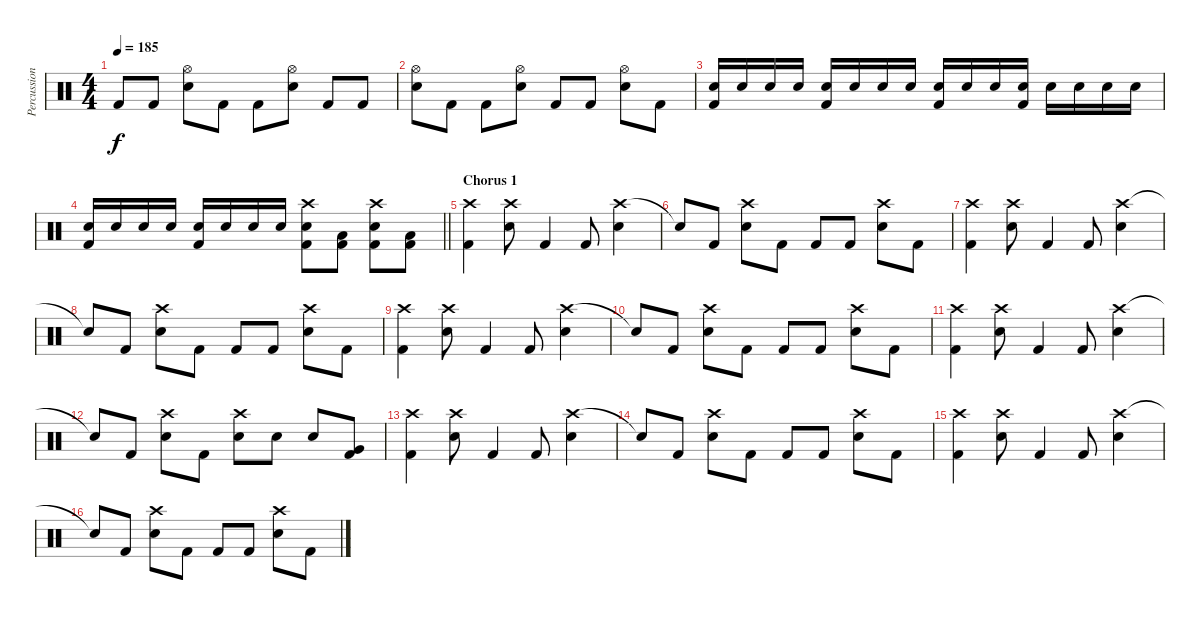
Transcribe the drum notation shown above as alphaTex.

\track ("Percussion" "Percussion") {instrument percussion}
\staff {score}
\articulation defaults
\ts (4 4)
\tempo 185
\clef neutral
\ks c "Kick (hit) 2".8{dy f} "Kick (hit) 2".8
("Hi-Hat (open)" "Snare (hit) 2").8 "Kick (hit) 2".8 "Kick (hit) 2".8 ("Hi-Hat (open)" "Snare (hit) 2").8 "Kick (hit) 2".8 "Kick (hit) 2".8 |
("Hi-Hat (open)" "Snare (hit) 2").8 "Kick (hit) 2".8 "Kick (hit) 2".8 ("Hi-Hat (open)" "Snare (hit) 2").8 "Kick (hit) 2".8 "Kick (hit) 2".8 ("Hi-Hat (open)" "Snare (hit) 2").8 "Kick (hit) 2".8 |
("Snare (hit) 2" "Kick (hit) 2").16 "Snare (hit) 2".16 "Snare (hit) 2".16 "Snare (hit) 2".16 ("Snare (hit) 2" "Kick (hit) 2").16 "Snare (hit) 2".16 "Snare (hit) 2".16 "Snare (hit) 2".16 ("Snare (hit) 2" "Kick (hit) 2").16 "Snare (hit) 2".16 "Snare (hit) 2".16 ("Snare (hit) 2" "Kick (hit) 2").16 "Snare (hit) 2".16 "Snare (hit) 2".16 "Snare (hit) 2".16 "Snare (hit) 2".16 |
\barLineRight lightlight
("Snare (hit) 2" "Kick (hit) 2").16 "Snare (hit) 2".16 "Snare (hit) 2".16 "Snare (hit) 2".16 ("Snare (hit) 2" "Kick (hit) 2").16 "Snare (hit) 2".16 "Snare (hit) 2".16 "Snare (hit) 2".16 ("Crash high (hit)" "Snare (hit) 2" "Kick (hit) 2").8 ("Low Floor Tom (hit)" "Kick (hit) 2").8 ("Crash high (hit)" "Snare (hit) 2" "Kick (hit) 2").8 ("Low Floor Tom (hit)" "Kick (hit) 2").8 |
\section ("" "Chorus 1")
("Crash high (hit)" "Kick (hit) 2").4 ("Crash high (hit)" "Snare (hit) 2").8 "Kick (hit) 2".4 "Kick (hit) 2".8 ("Crash high (hit)" "Snare (hit) 2").4 |
"Snare (hit)"{t}.8 "Kick (hit) 2".8 ("Crash high (hit)" "Snare (hit) 2").8 "Kick (hit) 2".8 "Kick (hit) 2".8 "Kick (hit) 2".8 ("Crash high (hit)" "Snare (hit) 2").8 "Kick (hit) 2".8 |
("Crash high (hit)" "Kick (hit) 2").4 ("Crash high (hit)" "Snare (hit) 2").8 "Kick (hit) 2".4 "Kick (hit) 2".8 ("Crash high (hit)" "Snare (hit) 2").4 |
"Snare (hit)"{t}.8 "Kick (hit) 2".8 ("Crash high (hit)" "Snare (hit) 2").8 "Kick (hit) 2".8 "Kick (hit) 2".8 "Kick (hit) 2".8 ("Crash high (hit)" "Snare (hit) 2").8 "Kick (hit) 2".8 |
("Crash high (hit)" "Kick (hit) 2").4 ("Crash high (hit)" "Snare (hit) 2").8 "Kick (hit) 2".4 "Kick (hit) 2".8 ("Crash high (hit)" "Snare (hit) 2").4 |
"Snare (hit)"{t}.8 "Kick (hit) 2".8 ("Crash high (hit)" "Snare (hit) 2").8 "Kick (hit) 2".8 "Kick (hit) 2".8 "Kick (hit) 2".8 ("Crash high (hit)" "Snare (hit) 2").8 "Kick (hit) 2".8 |
("Crash high (hit)" "Kick (hit) 2").4 ("Crash high (hit)" "Snare (hit) 2").8 "Kick (hit) 2".4 "Kick (hit) 2".8 ("Crash high (hit)" "Snare (hit) 2").4 |
"Snare (hit)"{t}.8 "Kick (hit) 2".8 ("Crash high (hit)" "Snare (hit) 2").8 "Kick (hit) 2".8 ("Crash high (hit)" "Snare (hit) 2").8 "Snare (hit) 2".8 "Snare (hit) 2".8 ("Very Low Tom (hit)" "Kick (hit) 2").8 |
("Crash high (hit)" "Kick (hit) 2").4 ("Crash high (hit)" "Snare (hit) 2").8 "Kick (hit) 2".4 "Kick (hit) 2".8 ("Crash high (hit)" "Snare (hit) 2").4 |
"Snare (hit)"{t}.8 "Kick (hit) 2".8 ("Crash high (hit)" "Snare (hit) 2").8 "Kick (hit) 2".8 "Kick (hit) 2".8 "Kick (hit) 2".8 ("Crash high (hit)" "Snare (hit) 2").8 "Kick (hit) 2".8 |
("Crash high (hit)" "Kick (hit) 2").4 ("Crash high (hit)" "Snare (hit) 2").8 "Kick (hit) 2".4 "Kick (hit) 2".8 ("Crash high (hit)" "Snare (hit) 2").4 |
"Snare (hit)"{t}.8 "Kick (hit) 2".8 ("Crash high (hit)" "Snare (hit) 2").8 "Kick (hit) 2".8 "Kick (hit) 2".8 "Kick (hit) 2".8 ("Crash high (hit)" "Snare (hit) 2").8 "Kick (hit) 2".8
